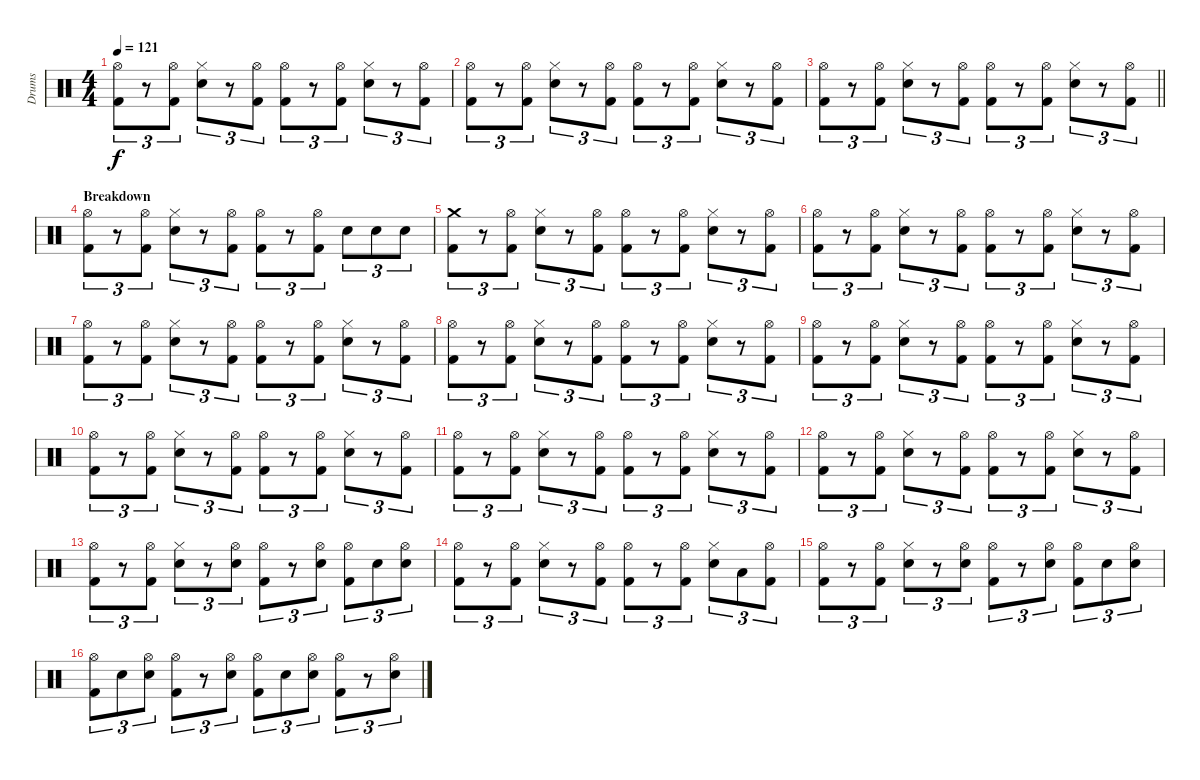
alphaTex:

\track ("Drums" "Drums") {instrument percussion}
\staff {score}
\articulation defaults
\ts (4 4)
\tempo 121
\clef neutral
\ks c
("Hi-Hat (open)" "Kick (hit) 2").8{tu (3 2) dy f} r.8{tu (3 2)} ("Hi-Hat (open)" "Kick (hit) 2").8{tu (3 2)} ("Hi-Hat (closed)" "Snare (hit) 2").8{tu (3 2)} r.8{tu (3 2)} ("Hi-Hat (open)" "Kick (hit) 2").8{tu (3 2)} ("Hi-Hat (open)" "Kick (hit) 2").8{tu (3 2)} r.8{tu (3 2)} ("Hi-Hat (open)" "Kick (hit) 2").8{tu (3 2)} ("Hi-Hat (closed)" "Snare (hit) 2").8{tu (3 2)} r.8{tu (3 2)} ("Hi-Hat (open)" "Kick (hit) 2").8{tu (3 2)} |
("Hi-Hat (open)" "Kick (hit) 2").8{tu (3 2)} r.8{tu (3 2)} ("Hi-Hat (open)" "Kick (hit) 2").8{tu (3 2)} ("Hi-Hat (closed)" "Snare (hit) 2").8{tu (3 2)} r.8{tu (3 2)} ("Hi-Hat (open)" "Kick (hit) 2").8{tu (3 2)} ("Hi-Hat (open)" "Kick (hit) 2").8{tu (3 2)} r.8{tu (3 2)} ("Hi-Hat (open)" "Kick (hit) 2").8{tu (3 2)} ("Hi-Hat (closed)" "Snare (hit) 2").8{tu (3 2)} r.8{tu (3 2)} ("Hi-Hat (open)" "Kick (hit) 2").8{tu (3 2)} |
\barLineRight lightlight
("Hi-Hat (open)" "Kick (hit) 2").8{tu (3 2)} r.8{tu (3 2)} ("Hi-Hat (open)" "Kick (hit) 2").8{tu (3 2)} ("Hi-Hat (closed)" "Snare (hit) 2").8{tu (3 2)} r.8{tu (3 2)} ("Hi-Hat (open)" "Kick (hit) 2").8{tu (3 2)} ("Hi-Hat (open)" "Kick (hit) 2").8{tu (3 2)} r.8{tu (3 2)} ("Hi-Hat (open)" "Kick (hit) 2").8{tu (3 2)} ("Hi-Hat (closed)" "Snare (hit) 2").8{tu (3 2)} r.8{tu (3 2)} ("Hi-Hat (open)" "Kick (hit) 2").8{tu (3 2)} |
\section ("" "Breakdown")
("Hi-Hat (open)" "Kick (hit) 2").8{tu (3 2)} r.8{tu (3 2)} ("Hi-Hat (open)" "Kick (hit) 2").8{tu (3 2)} ("Hi-Hat (closed)" "Snare (hit) 2").8{tu (3 2)} r.8{tu (3 2)} ("Hi-Hat (open)" "Kick (hit) 2").8{tu (3 2)} ("Hi-Hat (open)" "Kick (hit) 2").8{tu (3 2)} r.8{tu (3 2)} ("Hi-Hat (open)" "Kick (hit) 2").8{tu (3 2)} "Snare (hit) 2".8{tu (3 2)} "Snare (hit) 2".8{tu (3 2)} "Snare (hit) 2".8{tu (3 2)} |
("Crash medium (hit)" "Kick (hit) 2").8{tu (3 2)} r.8{tu (3 2)} ("Hi-Hat (open)" "Kick (hit) 2").8{tu (3 2)} ("Hi-Hat (closed)" "Snare (hit) 2").8{tu (3 2)} r.8{tu (3 2)} ("Hi-Hat (open)" "Kick (hit) 2").8{tu (3 2)} ("Hi-Hat (open)" "Kick (hit) 2").8{tu (3 2)} r.8{tu (3 2)} ("Hi-Hat (open)" "Kick (hit) 2").8{tu (3 2)} ("Hi-Hat (closed)" "Snare (hit) 2").8{tu (3 2)} r.8{tu (3 2)} ("Hi-Hat (open)" "Kick (hit) 2").8{tu (3 2)} |
("Hi-Hat (open)" "Kick (hit) 2").8{tu (3 2)} r.8{tu (3 2)} ("Hi-Hat (open)" "Kick (hit) 2").8{tu (3 2)} ("Hi-Hat (closed)" "Snare (hit) 2").8{tu (3 2)} r.8{tu (3 2)} ("Hi-Hat (open)" "Kick (hit) 2").8{tu (3 2)} ("Hi-Hat (open)" "Kick (hit) 2").8{tu (3 2)} r.8{tu (3 2)} ("Hi-Hat (open)" "Kick (hit) 2").8{tu (3 2)} ("Hi-Hat (closed)" "Snare (hit) 2").8{tu (3 2)} r.8{tu (3 2)} ("Hi-Hat (open)" "Kick (hit) 2").8{tu (3 2)} |
("Hi-Hat (open)" "Kick (hit) 2").8{tu (3 2)} r.8{tu (3 2)} ("Hi-Hat (open)" "Kick (hit) 2").8{tu (3 2)} ("Hi-Hat (closed)" "Snare (hit) 2").8{tu (3 2)} r.8{tu (3 2)} ("Hi-Hat (open)" "Kick (hit) 2").8{tu (3 2)} ("Hi-Hat (open)" "Kick (hit) 2").8{tu (3 2)} r.8{tu (3 2)} ("Hi-Hat (open)" "Kick (hit) 2").8{tu (3 2)} ("Hi-Hat (closed)" "Snare (hit) 2").8{tu (3 2)} r.8{tu (3 2)} ("Hi-Hat (open)" "Kick (hit) 2").8{tu (3 2)} |
("Hi-Hat (open)" "Kick (hit) 2").8{tu (3 2)} r.8{tu (3 2)} ("Hi-Hat (open)" "Kick (hit) 2").8{tu (3 2)} ("Hi-Hat (closed)" "Snare (hit) 2").8{tu (3 2)} r.8{tu (3 2)} ("Hi-Hat (open)" "Kick (hit) 2").8{tu (3 2)} ("Hi-Hat (open)" "Kick (hit) 2").8{tu (3 2)} r.8{tu (3 2)} ("Hi-Hat (open)" "Kick (hit) 2").8{tu (3 2)} ("Hi-Hat (closed)" "Snare (hit) 2").8{tu (3 2)} r.8{tu (3 2)} ("Hi-Hat (open)" "Kick (hit) 2").8{tu (3 2)} |
("Hi-Hat (open)" "Kick (hit) 2").8{tu (3 2)} r.8{tu (3 2)} ("Hi-Hat (open)" "Kick (hit) 2").8{tu (3 2)} ("Hi-Hat (closed)" "Snare (hit) 2").8{tu (3 2)} r.8{tu (3 2)} ("Hi-Hat (open)" "Kick (hit) 2").8{tu (3 2)} ("Hi-Hat (open)" "Kick (hit) 2").8{tu (3 2)} r.8{tu (3 2)} ("Hi-Hat (open)" "Kick (hit) 2").8{tu (3 2)} ("Hi-Hat (closed)" "Snare (hit) 2").8{tu (3 2)} r.8{tu (3 2)} ("Hi-Hat (open)" "Kick (hit) 2").8{tu (3 2)} |
("Hi-Hat (open)" "Kick (hit) 2").8{tu (3 2)} r.8{tu (3 2)} ("Hi-Hat (open)" "Kick (hit) 2").8{tu (3 2)} ("Hi-Hat (closed)" "Snare (hit) 2").8{tu (3 2)} r.8{tu (3 2)} ("Hi-Hat (open)" "Kick (hit) 2").8{tu (3 2)} ("Hi-Hat (open)" "Kick (hit) 2").8{tu (3 2)} r.8{tu (3 2)} ("Hi-Hat (open)" "Kick (hit) 2").8{tu (3 2)} ("Hi-Hat (closed)" "Snare (hit) 2").8{tu (3 2)} r.8{tu (3 2)} ("Hi-Hat (open)" "Kick (hit) 2").8{tu (3 2)} |
("Hi-Hat (open)" "Kick (hit) 2").8{tu (3 2)} r.8{tu (3 2)} ("Hi-Hat (open)" "Kick (hit) 2").8{tu (3 2)} ("Hi-Hat (closed)" "Snare (hit) 2").8{tu (3 2)} r.8{tu (3 2)} ("Hi-Hat (open)" "Kick (hit) 2").8{tu (3 2)} ("Hi-Hat (open)" "Kick (hit) 2").8{tu (3 2)} r.8{tu (3 2)} ("Hi-Hat (open)" "Kick (hit) 2").8{tu (3 2)} ("Hi-Hat (closed)" "Snare (hit) 2").8{tu (3 2)} r.8{tu (3 2)} ("Hi-Hat (open)" "Kick (hit) 2").8{tu (3 2)} |
("Hi-Hat (open)" "Kick (hit) 2").8{tu (3 2)} r.8{tu (3 2)} ("Hi-Hat (open)" "Kick (hit) 2").8{tu (3 2)} ("Hi-Hat (closed)" "Snare (hit) 2").8{tu (3 2)} r.8{tu (3 2)} ("Hi-Hat (open)" "Kick (hit) 2").8{tu (3 2)} ("Hi-Hat (open)" "Kick (hit) 2").8{tu (3 2)} r.8{tu (3 2)} ("Hi-Hat (open)" "Kick (hit) 2").8{tu (3 2)} ("Hi-Hat (closed)" "Snare (hit) 2").8{tu (3 2)} r.8{tu (3 2)} ("Hi-Hat (open)" "Kick (hit) 2").8{tu (3 2)} |
("Hi-Hat (open)" "Kick (hit) 2").8{tu (3 2)} r.8{tu (3 2)} ("Hi-Hat (open)" "Kick (hit) 2").8{tu (3 2)} ("Hi-Hat (closed)" "Snare (hit) 2").8{tu (3 2)} r.8{tu (3 2)} ("Hi-Hat (open)" "Snare (hit) 2").8{tu (3 2)} ("Hi-Hat (open)" "Kick (hit) 2").8{tu (3 2)} r.8{tu (3 2)} ("Hi-Hat (open)" "Snare (hit) 2").8{tu (3 2)} ("Hi-Hat (open)" "Kick (hit) 2").8{tu (3 2)} "Snare (hit) 2".8{tu (3 2)} ("Hi-Hat (open)" "Snare (hit) 2").8{tu (3 2)} |
("Hi-Hat (open)" "Kick (hit) 2").8{tu (3 2)} r.8{tu (3 2)} ("Hi-Hat (open)" "Kick (hit) 2").8{tu (3 2)} ("Hi-Hat (closed)" "Snare (hit) 2").8{tu (3 2)} r.8{tu (3 2)} ("Hi-Hat (open)" "Kick (hit) 2").8{tu (3 2)} ("Hi-Hat (open)" "Kick (hit) 2").8{tu (3 2)} r.8{tu (3 2)} ("Hi-Hat (open)" "Kick (hit) 2").8{tu (3 2)} ("Hi-Hat (closed)" "Snare (hit) 2").8{tu (3 2)} "Low Tom (hit)".8{tu (3 2)} ("Hi-Hat (open)" "Kick (hit) 2").8{tu (3 2)} |
("Hi-Hat (open)" "Kick (hit) 2").8{tu (3 2)} r.8{tu (3 2)} ("Hi-Hat (open)" "Kick (hit) 2").8{tu (3 2)} ("Hi-Hat (closed)" "Snare (hit) 2").8{tu (3 2)} r.8{tu (3 2)} ("Hi-Hat (open)" "Snare (hit) 2").8{tu (3 2)} ("Hi-Hat (open)" "Kick (hit) 2").8{tu (3 2)} r.8{tu (3 2)} ("Hi-Hat (open)" "Snare (hit) 2").8{tu (3 2)} ("Hi-Hat (open)" "Kick (hit) 2").8{tu (3 2)} "Snare (hit) 2".8{tu (3 2)} ("Hi-Hat (open)" "Snare (hit) 2").8{tu (3 2)} |
("Hi-Hat (open)" "Kick (hit) 2").8{tu (3 2)} "Snare (hit) 2".8{tu (3 2)} ("Hi-Hat (open)" "Snare (hit) 2").8{tu (3 2)} ("Hi-Hat (open)" "Kick (hit) 2").8{tu (3 2)} r.8{tu (3 2)} ("Hi-Hat (open)" "Snare (hit) 2").8{tu (3 2)} ("Hi-Hat (open)" "Kick (hit) 2").8{tu (3 2)} "Snare (hit) 2".8{tu (3 2)} ("Hi-Hat (open)" "Snare (hit) 2").8{tu (3 2)} ("Hi-Hat (open)" "Kick (hit) 2").8{tu (3 2)} r.8{tu (3 2)} ("Hi-Hat (open)" "Snare (hit) 2").8{tu (3 2)}
